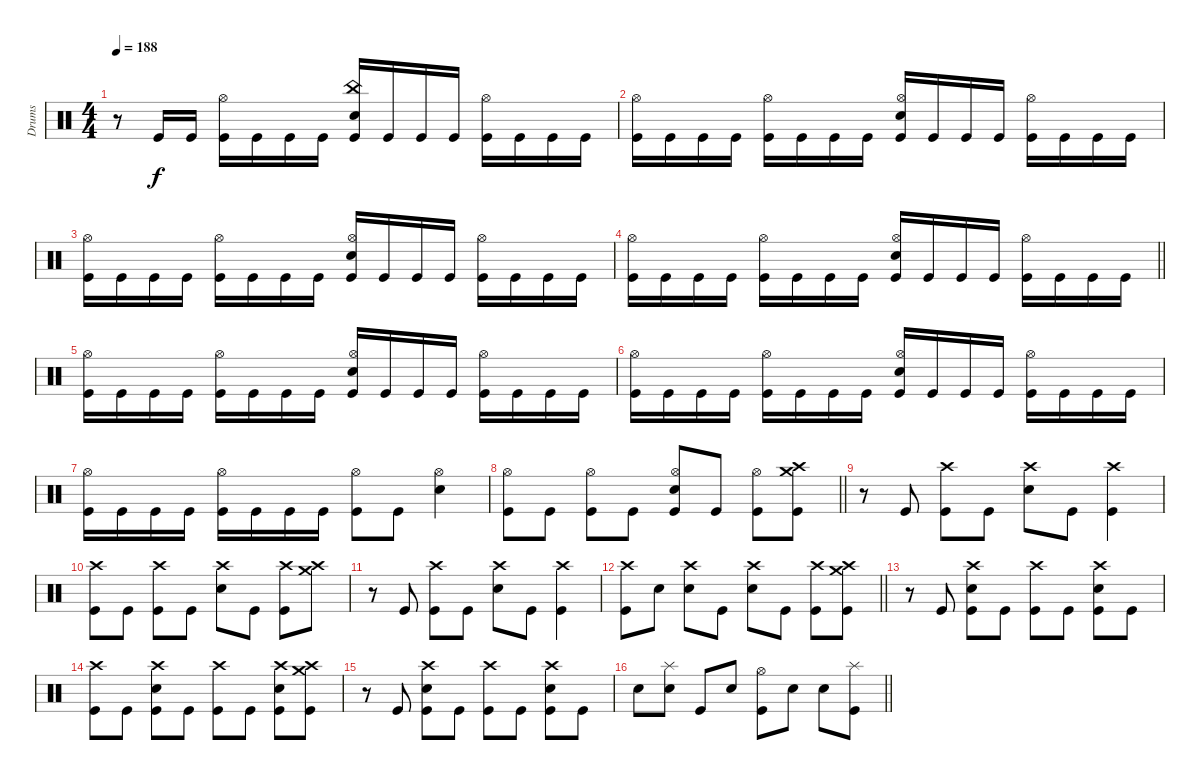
\track ("Drums" "Drums") {instrument percussion}
\staff
\articulation defaults
\ts (4 4)
\tempo 188
\clef neutral
\ks c
r.8{dy f} "Kick (hit)".16 "Kick (hit)".16 ("Hi-Hat (open)" "Kick (hit)").16 "Kick (hit)".16 "Kick (hit)".16 "Kick (hit)".16 ("China (hit)" "Electric Snare (hit)" "Kick (hit)").16 "Kick (hit)".16 "Kick (hit)".16 "Kick (hit)".16 ("Hi-Hat (open)" "Kick (hit)").16 "Kick (hit)".16 "Kick (hit)".16 "Kick (hit)".16 |
("Hi-Hat (open)" "Kick (hit)").16 "Kick (hit)".16 "Kick (hit)".16 "Kick (hit)".16 ("Hi-Hat (open)" "Kick (hit)").16 "Kick (hit)".16 "Kick (hit)".16 "Kick (hit)".16 ("Hi-Hat (open)" "Electric Snare (hit)" "Kick (hit)").16 "Kick (hit)".16 "Kick (hit)".16 "Kick (hit)".16 ("Hi-Hat (open)" "Kick (hit)").16 "Kick (hit)".16 "Kick (hit)".16 "Kick (hit)".16 |
("Hi-Hat (open)" "Kick (hit)").16 "Kick (hit)".16 "Kick (hit)".16 "Kick (hit)".16 ("Hi-Hat (open)" "Kick (hit)").16 "Kick (hit)".16 "Kick (hit)".16 "Kick (hit)".16 ("Hi-Hat (open)" "Electric Snare (hit)" "Kick (hit)").16 "Kick (hit)".16 "Kick (hit)".16 "Kick (hit)".16 ("Hi-Hat (open)" "Kick (hit)").16 "Kick (hit)".16 "Kick (hit)".16 "Kick (hit)".16 |
\barLineRight lightlight
("Hi-Hat (open)" "Kick (hit)").16 "Kick (hit)".16 "Kick (hit)".16 "Kick (hit)".16 ("Hi-Hat (open)" "Kick (hit)").16 "Kick (hit)".16 "Kick (hit)".16 "Kick (hit)".16 ("Hi-Hat (open)" "Electric Snare (hit)" "Kick (hit)").16 "Kick (hit)".16 "Kick (hit)".16 "Kick (hit)".16 ("Hi-Hat (open)" "Kick (hit)").16 "Kick (hit)".16 "Kick (hit)".16 "Kick (hit)".16 |
("Hi-Hat (open)" "Kick (hit)").16 "Kick (hit)".16 "Kick (hit)".16 "Kick (hit)".16 ("Hi-Hat (open)" "Kick (hit)").16 "Kick (hit)".16 "Kick (hit)".16 "Kick (hit)".16 ("Hi-Hat (open)" "Electric Snare (hit)" "Kick (hit)").16 "Kick (hit)".16 "Kick (hit)".16 "Kick (hit)".16 ("Hi-Hat (open)" "Kick (hit)").16 "Kick (hit)".16 "Kick (hit)".16 "Kick (hit)".16 |
("Hi-Hat (open)" "Kick (hit)").16 "Kick (hit)".16 "Kick (hit)".16 "Kick (hit)".16 ("Hi-Hat (open)" "Kick (hit)").16 "Kick (hit)".16 "Kick (hit)".16 "Kick (hit)".16 ("Hi-Hat (open)" "Electric Snare (hit)" "Kick (hit)").16 "Kick (hit)".16 "Kick (hit)".16 "Kick (hit)".16 ("Hi-Hat (open)" "Kick (hit)").16 "Kick (hit)".16 "Kick (hit)".16 "Kick (hit)".16 |
("Hi-Hat (open)" "Kick (hit)").16 "Kick (hit)".16 "Kick (hit)".16 "Kick (hit)".16 ("Hi-Hat (open)" "Kick (hit)").16 "Kick (hit)".16 "Kick (hit)".16 "Kick (hit)".16 ("Hi-Hat (open)" "Kick (hit)").8 "Kick (hit)".8 ("Hi-Hat (open)" "Electric Snare (hit)").4 |
\barLineRight lightlight
("Hi-Hat (open)" "Kick (hit)").8 "Kick (hit)".8 ("Hi-Hat (open)" "Kick (hit)").8 "Kick (hit)".8 ("Hi-Hat (open)" "Electric Snare (hit)" "Kick (hit)").8 "Kick (hit)".8 ("Hi-Hat (open)" "Kick (hit)").8 ("Crash high (hit)" "Crash medium (hit)" "Kick (hit)").8 |
\section ("" "")
r.8 "Kick (hit)".8 ("Crash high (hit)" "Kick (hit)").8 "Kick (hit)".8 ("Crash high (hit)" "Electric Snare (hit)").8 "Kick (hit)".8 ("Crash high (hit)" "Kick (hit)").4 |
("Crash high (hit)" "Kick (hit)").8 "Kick (hit)".8 ("Crash high (hit)" "Kick (hit)").8 "Kick (hit)".8 ("Crash high (hit)" "Electric Snare (hit)").8 "Kick (hit)".8 ("Crash high (hit)" "Kick (hit)").8 ("Crash high (hit)" "Crash medium (hit)").8 |
r.8 "Kick (hit)".8 ("Crash high (hit)" "Kick (hit)").8 "Kick (hit)".8 ("Crash high (hit)" "Electric Snare (hit)").8 "Kick (hit)".8 ("Crash high (hit)" "Kick (hit)").4 |
\barLineRight lightlight
("Crash high (hit)" "Kick (hit)").8 "Electric Snare (hit)".8 ("Crash high (hit)" "Electric Snare (hit)").8 "Kick (hit)".8 ("Crash high (hit)" "Electric Snare (hit)").8 "Kick (hit)".8 ("Crash high (hit)" "Kick (hit)").8 ("Crash high (hit)" "Crash medium (hit)" "Kick (hit)").8 |
r.8 "Kick (hit)".8 ("Crash high (hit)" "Electric Snare (hit)" "Kick (hit)").8 "Kick (hit)".8 ("Crash high (hit)" "Kick (hit)").8 "Kick (hit)".8 ("Crash high (hit)" "Electric Snare (hit)" "Kick (hit)").8 "Kick (hit)".8 |
("Crash high (hit)" "Kick (hit)").8 "Kick (hit)".8 ("Crash high (hit)" "Electric Snare (hit)" "Kick (hit)").8 "Kick (hit)".8 ("Crash high (hit)" "Kick (hit)").8 "Kick (hit)".8 ("Crash high (hit)" "Electric Snare (hit)" "Kick (hit)").8 ("Crash high (hit)" "Crash medium (hit)" "Kick (hit)").8 |
r.8 "Kick (hit)".8 ("Crash high (hit)" "Electric Snare (hit)" "Kick (hit)").8 "Kick (hit)".8 ("Crash high (hit)" "Kick (hit)").8 "Kick (hit)".8 ("Crash high (hit)" "Electric Snare (hit)" "Kick (hit)").8 "Kick (hit)".8 |
\barLineRight lightlight "Electric Snare (hit)".8
("Splash (hit)" "Electric Snare (hit)").8 "Kick (hit)".8 "Electric Snare (hit)".8 ("Hi-Hat (open)" "Kick (hit)").8 "Electric Snare (hit)".8 "Electric Snare (hit)".8 ("Splash (hit)" "Kick (hit)").8
